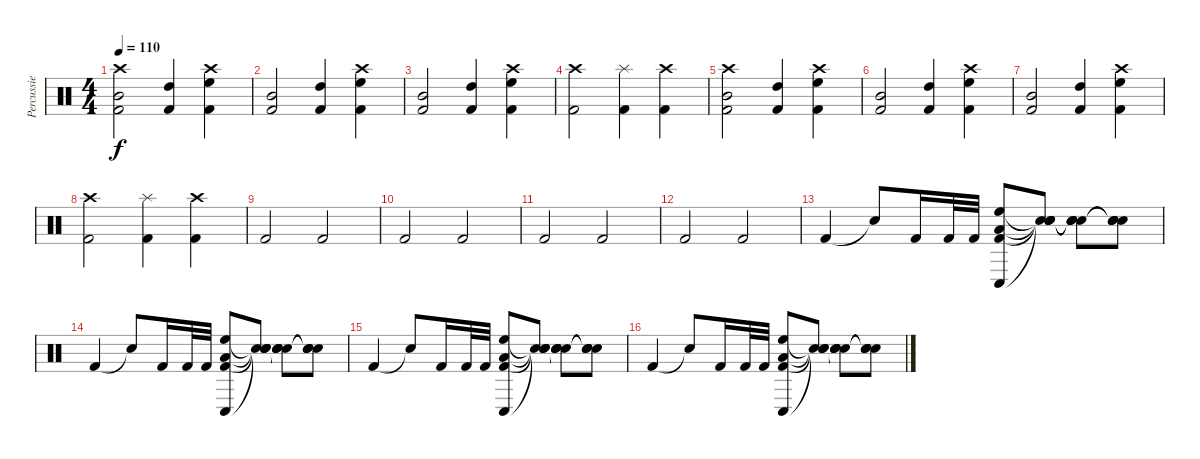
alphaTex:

\track ("Percussie" "Percussie") {instrument percussion}
\staff {score}
\articulation defaults
\ts (4 4)
\tempo 110
\clef neutral
\ks c
("Crash high (hit)" "Mid Tom (hit)" "Kick (hit) 2").2{dy f} ("High Tom (hit)" "Kick (hit) 2").4 ("Crash high (hit)" "High Floor Tom (hit)" "Kick (hit) 2").4 |
("Mid Tom (hit)" "Kick (hit) 2").2 ("High Tom (hit)" "Kick (hit) 2").4 ("Crash high (hit)" "High Floor Tom (hit)" "Kick (hit) 2").4 |
("Mid Tom (hit)" "Kick (hit) 2").2 ("High Tom (hit)" "Kick (hit) 2").4 ("Crash high (hit)" "High Floor Tom (hit)" "Kick (hit) 2").4 |
("Crash high (hit)" "Kick (hit) 2").2 ("Splash (hit)" "Kick (hit) 2").4 ("Crash high (hit)" "Kick (hit) 2").4 |
("Crash high (hit)" "Mid Tom (hit)" "Kick (hit) 2").2 ("High Tom (hit)" "Kick (hit) 2").4 ("Crash high (hit)" "High Floor Tom (hit)" "Kick (hit) 2").4 |
("Mid Tom (hit)" "Kick (hit) 2").2 ("High Tom (hit)" "Kick (hit) 2").4 ("Crash high (hit)" "High Floor Tom (hit)" "Kick (hit) 2").4 |
("Mid Tom (hit)" "Kick (hit) 2").2 ("High Tom (hit)" "Kick (hit) 2").4 ("Crash high (hit)" "High Floor Tom (hit)" "Kick (hit) 2").4 |
("Crash high (hit)" "Kick (hit) 2").2 ("Splash (hit)" "Kick (hit) 2").4 ("Crash high (hit)" "Kick (hit) 2").4 |
"Kick (hit) 2".2 "Kick (hit) 2".2 |
"Kick (hit) 2".2 "Kick (hit) 2".2 |
"Kick (hit) 2".2 "Kick (hit) 2".2 |
"Kick (hit) 2".2 "Kick (hit) 2".2 |
"Kick (hit) 2".4 "Snare (hit)"{t}.8 "Kick (hit) 2".16 "Kick (hit) 2".32 "Kick (hit) 2".32 ("Conga low (hit)" "Low Tom (hit)" "High Floor Tom (hit)" "Kick (hit) 2").8 ("Snare (hit)"{t} "Snare (hit)"{t} "Snare (hit)"{t} "Snare (hit)"{t}).8 ("Snare (hit)"{t} "Snare (hit)"{t} "Snare (hit)"{t} "Snare (hit)"{t}).8 ("Snare (hit)"{t} "Snare (hit)"{t} "Snare (hit)"{t} "Snare (hit)"{t}).8 |
"Kick (hit) 2".4 "Snare (hit)"{t}.8 "Kick (hit) 2".16 "Kick (hit) 2".32 "Kick (hit) 2".32 ("Conga low (hit)" "Low Tom (hit)" "High Floor Tom (hit)" "Kick (hit) 2").8 ("Snare (hit)"{t} "Snare (hit)"{t} "Snare (hit)"{t} "Snare (hit)"{t}).8 ("Snare (hit)"{t} "Snare (hit)"{t} "Snare (hit)"{t} "Snare (hit)"{t}).8 ("Snare (hit)"{t} "Snare (hit)"{t} "Snare (hit)"{t} "Snare (hit)"{t}).8 |
"Kick (hit) 2".4 "Snare (hit)"{t}.8 "Kick (hit) 2".16 "Kick (hit) 2".32 "Kick (hit) 2".32 ("Conga low (hit)" "Low Tom (hit)" "High Floor Tom (hit)" "Kick (hit) 2").8 ("Snare (hit)"{t} "Snare (hit)"{t} "Snare (hit)"{t} "Snare (hit)"{t}).8 ("Snare (hit)"{t} "Snare (hit)"{t} "Snare (hit)"{t} "Snare (hit)"{t}).8 ("Snare (hit)"{t} "Snare (hit)"{t} "Snare (hit)"{t} "Snare (hit)"{t}).8 |
"Kick (hit) 2".4 "Snare (hit)"{t}.8 "Kick (hit) 2".16 "Kick (hit) 2".32 "Kick (hit) 2".32 ("Conga low (hit)" "Low Tom (hit)" "High Floor Tom (hit)" "Kick (hit) 2").8 ("Snare (hit)"{t} "Snare (hit)"{t} "Snare (hit)"{t} "Snare (hit)"{t}).8 ("Snare (hit)"{t} "Snare (hit)"{t} "Snare (hit)"{t} "Snare (hit)"{t}).8 ("Snare (hit)"{t} "Snare (hit)"{t} "Snare (hit)"{t} "Snare (hit)"{t}).8
